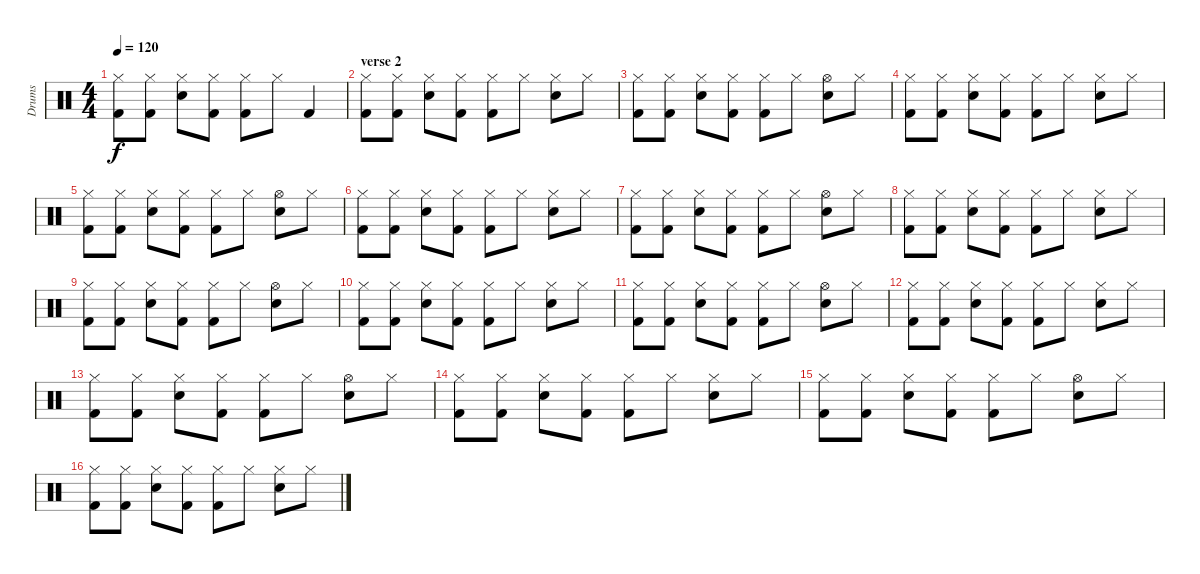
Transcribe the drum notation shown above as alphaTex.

\track ("Drums " "Drums ") {instrument percussion}
\staff {score}
\articulation defaults
\ts (4 4)
\tempo 120
\clef neutral
\ks c
("Kick (hit) 2" "Hi-Hat (closed)").8{dy f} ("Kick (hit) 2" "Hi-Hat (closed)").8 ("Electric Snare (hit)" "Hi-Hat (closed)").8 ("Kick (hit) 2" "Hi-Hat (closed)").8 ("Kick (hit) 2" "Hi-Hat (closed)").8 "Hi-Hat (closed)".8 "Kick (hit) 2".4 |
\section ("" "verse 2")
("Kick (hit) 2" "Hi-Hat (closed)").8 ("Kick (hit) 2" "Hi-Hat (closed)").8 ("Electric Snare (hit)" "Hi-Hat (closed)").8 ("Kick (hit) 2" "Hi-Hat (closed)").8 ("Kick (hit) 2" "Hi-Hat (closed)").8 "Hi-Hat (closed)".8 ("Electric Snare (hit)" "Hi-Hat (closed)").8 "Hi-Hat (closed)".8 |
("Kick (hit) 2" "Hi-Hat (closed)").8 ("Kick (hit) 2" "Hi-Hat (closed)").8 ("Electric Snare (hit)" "Hi-Hat (closed)").8 ("Kick (hit) 2" "Hi-Hat (closed)").8 ("Kick (hit) 2" "Hi-Hat (closed)").8 "Hi-Hat (closed)".8 ("Electric Snare (hit)" "Hi-Hat (open)").8 "Hi-Hat (closed)".8 |
("Kick (hit) 2" "Hi-Hat (closed)").8 ("Kick (hit) 2" "Hi-Hat (closed)").8 ("Electric Snare (hit)" "Hi-Hat (closed)").8 ("Kick (hit) 2" "Hi-Hat (closed)").8 ("Kick (hit) 2" "Hi-Hat (closed)").8 "Hi-Hat (closed)".8 ("Electric Snare (hit)" "Hi-Hat (closed)").8 "Hi-Hat (closed)".8 |
("Kick (hit) 2" "Hi-Hat (closed)").8 ("Kick (hit) 2" "Hi-Hat (closed)").8 ("Electric Snare (hit)" "Hi-Hat (closed)").8 ("Kick (hit) 2" "Hi-Hat (closed)").8 ("Kick (hit) 2" "Hi-Hat (closed)").8 "Hi-Hat (closed)".8 ("Electric Snare (hit)" "Hi-Hat (open)").8 "Hi-Hat (closed)".8 |
("Kick (hit) 2" "Hi-Hat (closed)").8 ("Kick (hit) 2" "Hi-Hat (closed)").8 ("Electric Snare (hit)" "Hi-Hat (closed)").8 ("Kick (hit) 2" "Hi-Hat (closed)").8 ("Kick (hit) 2" "Hi-Hat (closed)").8 "Hi-Hat (closed)".8 ("Electric Snare (hit)" "Hi-Hat (closed)").8 "Hi-Hat (closed)".8 |
("Kick (hit) 2" "Hi-Hat (closed)").8 ("Kick (hit) 2" "Hi-Hat (closed)").8 ("Electric Snare (hit)" "Hi-Hat (closed)").8 ("Kick (hit) 2" "Hi-Hat (closed)").8 ("Kick (hit) 2" "Hi-Hat (closed)").8 "Hi-Hat (closed)".8 ("Electric Snare (hit)" "Hi-Hat (open)").8 "Hi-Hat (closed)".8 |
("Kick (hit) 2" "Hi-Hat (closed)").8 ("Kick (hit) 2" "Hi-Hat (closed)").8 ("Electric Snare (hit)" "Hi-Hat (closed)").8 ("Kick (hit) 2" "Hi-Hat (closed)").8 ("Kick (hit) 2" "Hi-Hat (closed)").8 "Hi-Hat (closed)".8 ("Electric Snare (hit)" "Hi-Hat (closed)").8 "Hi-Hat (closed)".8 |
("Kick (hit) 2" "Hi-Hat (closed)").8 ("Kick (hit) 2" "Hi-Hat (closed)").8 ("Electric Snare (hit)" "Hi-Hat (closed)").8 ("Kick (hit) 2" "Hi-Hat (closed)").8 ("Kick (hit) 2" "Hi-Hat (closed)").8 "Hi-Hat (closed)".8 ("Electric Snare (hit)" "Hi-Hat (open)").8 "Hi-Hat (closed)".8 |
("Kick (hit) 2" "Hi-Hat (closed)").8 ("Kick (hit) 2" "Hi-Hat (closed)").8 ("Electric Snare (hit)" "Hi-Hat (closed)").8 ("Kick (hit) 2" "Hi-Hat (closed)").8 ("Kick (hit) 2" "Hi-Hat (closed)").8 "Hi-Hat (closed)".8 ("Electric Snare (hit)" "Hi-Hat (closed)").8 "Hi-Hat (closed)".8 |
("Kick (hit) 2" "Hi-Hat (closed)").8 ("Kick (hit) 2" "Hi-Hat (closed)").8 ("Electric Snare (hit)" "Hi-Hat (closed)").8 ("Kick (hit) 2" "Hi-Hat (closed)").8 ("Kick (hit) 2" "Hi-Hat (closed)").8 "Hi-Hat (closed)".8 ("Electric Snare (hit)" "Hi-Hat (open)").8 "Hi-Hat (closed)".8 |
("Kick (hit) 2" "Hi-Hat (closed)").8 ("Kick (hit) 2" "Hi-Hat (closed)").8 ("Electric Snare (hit)" "Hi-Hat (closed)").8 ("Kick (hit) 2" "Hi-Hat (closed)").8 ("Kick (hit) 2" "Hi-Hat (closed)").8 "Hi-Hat (closed)".8 ("Electric Snare (hit)" "Hi-Hat (closed)").8 "Hi-Hat (closed)".8 |
("Kick (hit) 2" "Hi-Hat (closed)").8 ("Kick (hit) 2" "Hi-Hat (closed)").8 ("Electric Snare (hit)" "Hi-Hat (closed)").8 ("Kick (hit) 2" "Hi-Hat (closed)").8 ("Kick (hit) 2" "Hi-Hat (closed)").8 "Hi-Hat (closed)".8 ("Electric Snare (hit)" "Hi-Hat (open)").8 "Hi-Hat (closed)".8 |
("Kick (hit) 2" "Hi-Hat (closed)").8 ("Kick (hit) 2" "Hi-Hat (closed)").8 ("Electric Snare (hit)" "Hi-Hat (closed)").8 ("Kick (hit) 2" "Hi-Hat (closed)").8 ("Kick (hit) 2" "Hi-Hat (closed)").8 "Hi-Hat (closed)".8 ("Electric Snare (hit)" "Hi-Hat (closed)").8 "Hi-Hat (closed)".8 |
("Kick (hit) 2" "Hi-Hat (closed)").8 ("Kick (hit) 2" "Hi-Hat (closed)").8 ("Electric Snare (hit)" "Hi-Hat (closed)").8 ("Kick (hit) 2" "Hi-Hat (closed)").8 ("Kick (hit) 2" "Hi-Hat (closed)").8 "Hi-Hat (closed)".8 ("Electric Snare (hit)" "Hi-Hat (open)").8 "Hi-Hat (closed)".8 |
("Hi-Hat (closed)" "Kick (hit) 2").8 ("Hi-Hat (closed)" "Kick (hit) 2").8 ("Hi-Hat (closed)" "Electric Snare (hit)").8 ("Hi-Hat (closed)" "Kick (hit) 2").8 ("Hi-Hat (closed)" "Kick (hit) 2").8 "Hi-Hat (closed)".8 ("Hi-Hat (closed)" "Electric Snare (hit)").8 "Hi-Hat (closed)".8
